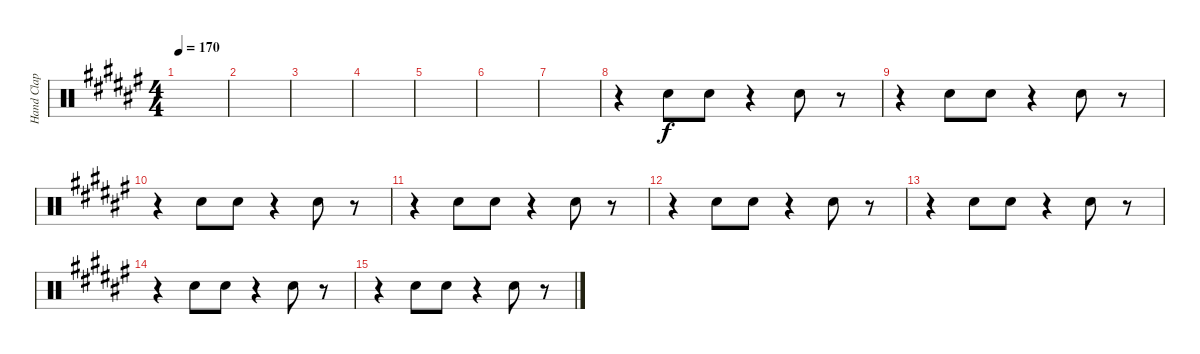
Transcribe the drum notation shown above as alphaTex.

\track ("Hand Clap" "Hand Clap") {instrument percussion}
\staff {score}
\articulation defaults
\ts (4 4)
\tempo 170
\clef neutral
\ks f#
|
|
|
|
|
|
|
r.4 "Hand Clap (hit)".8 "Hand Clap (hit)".8 r.4 "Hand Clap (hit)".8 r.8 |
r.4 "Hand Clap (hit)".8 "Hand Clap (hit)".8 r.4 "Hand Clap (hit)".8 r.8 |
r.4 "Hand Clap (hit)".8 "Hand Clap (hit)".8 r.4 "Hand Clap (hit)".8 r.8 |
r.4 "Hand Clap (hit)".8 "Hand Clap (hit)".8 r.4 "Hand Clap (hit)".8 r.8 |
r.4 "Hand Clap (hit)".8 "Hand Clap (hit)".8 r.4 "Hand Clap (hit)".8 r.8 |
r.4 "Hand Clap (hit)".8 "Hand Clap (hit)".8 r.4 "Hand Clap (hit)".8 r.8 |
r.4 "Hand Clap (hit)".8 "Hand Clap (hit)".8 r.4 "Hand Clap (hit)".8 r.8 |
r.4 "Hand Clap (hit)".8 "Hand Clap (hit)".8 r.4 "Hand Clap (hit)".8 r.8
